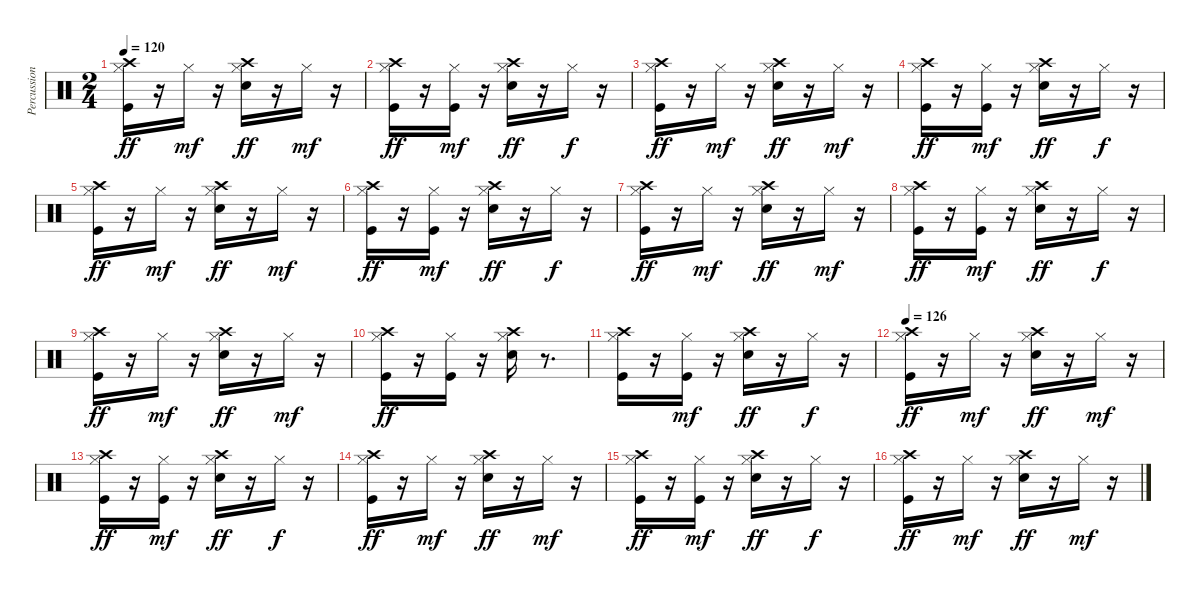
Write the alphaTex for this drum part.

\track ("Percussion" "Percussion") {instrument percussion}
\staff {score}
\articulation defaults
\ts (2 4)
\tempo 120
\clef neutral
\ks c
("Kick (hit)" "Hi-Hat (closed)" "Crash high (hit)").16{dy ff} r.16 "Hi-Hat (closed)".16{dy mf} r.16 ("Snare (hit) 2" "Hi-Hat (closed)" "Crash high (hit)").16{dy ff} r.16 "Hi-Hat (closed)".16{dy mf} r.16 |
("Kick (hit)" "Hi-Hat (closed)" "Crash high (hit)").16{dy ff} r.16 ("Kick (hit)" "Hi-Hat (closed)").16{dy mf} r.16 ("Snare (hit) 2" "Hi-Hat (closed)" "Crash high (hit)").16{dy ff} r.16 "Hi-Hat (closed)".16{dy f} r.16 |
("Kick (hit)" "Hi-Hat (closed)" "Crash high (hit)").16{dy ff} r.16 "Hi-Hat (closed)".16{dy mf} r.16 ("Snare (hit) 2" "Hi-Hat (closed)" "Crash high (hit)").16{dy ff} r.16 "Hi-Hat (closed)".16{dy mf} r.16 |
("Kick (hit)" "Hi-Hat (closed)" "Crash high (hit)").16{dy ff} r.16 ("Kick (hit)" "Hi-Hat (closed)").16{dy mf} r.16 ("Snare (hit) 2" "Hi-Hat (closed)" "Crash high (hit)").16{dy ff} r.16 "Hi-Hat (closed)".16{dy f} r.16 |
("Kick (hit)" "Hi-Hat (closed)" "Crash high (hit)").16{dy ff} r.16 "Hi-Hat (closed)".16{dy mf} r.16 ("Snare (hit) 2" "Hi-Hat (closed)" "Crash high (hit)").16{dy ff} r.16 "Hi-Hat (closed)".16{dy mf} r.16 |
("Kick (hit)" "Hi-Hat (closed)" "Crash high (hit)").16{dy ff} r.16 ("Kick (hit)" "Hi-Hat (closed)").16{dy mf} r.16 ("Snare (hit) 2" "Hi-Hat (closed)" "Crash high (hit)").16{dy ff} r.16 "Hi-Hat (closed)".16{dy f} r.16 |
("Kick (hit)" "Hi-Hat (closed)" "Crash high (hit)").16{dy ff} r.16 "Hi-Hat (closed)".16{dy mf} r.16 ("Snare (hit) 2" "Hi-Hat (closed)" "Crash high (hit)").16{dy ff} r.16 "Hi-Hat (closed)".16{dy mf} r.16 |
("Kick (hit)" "Hi-Hat (closed)" "Crash high (hit)").16{dy ff} r.16 ("Kick (hit)" "Hi-Hat (closed)").16{dy mf} r.16 ("Snare (hit) 2" "Hi-Hat (closed)" "Crash high (hit)").16{dy ff} r.16 "Hi-Hat (closed)".16{dy f} r.16 |
("Kick (hit)" "Hi-Hat (closed)" "Crash high (hit)").16{dy ff} r.16 "Hi-Hat (closed)".16{dy mf} r.16 ("Snare (hit) 2" "Hi-Hat (closed)" "Crash high (hit)").16{dy ff} r.16 "Hi-Hat (closed)".16{dy mf} r.16 |
("Kick (hit)" "Hi-Hat (closed)" "Crash high (hit)").16{dy ff} r.16 ("Kick (hit)" "Hi-Hat (closed)").16 r.16 ("Snare (hit) 2" "Hi-Hat (closed)" "Crash high (hit)").16 r.8{d} |
("Kick (hit)" "Hi-Hat (closed)" "Crash high (hit)").16 r.16 ("Kick (hit)" "Hi-Hat (closed)").16{dy mf} r.16 ("Snare (hit) 2" "Hi-Hat (closed)" "Crash high (hit)").16{dy ff} r.16 "Hi-Hat (closed)".16{dy f} r.16 |
\tempo 126
("Kick (hit)" "Hi-Hat (closed)" "Crash high (hit)").16{dy ff} r.16 "Hi-Hat (closed)".16{dy mf} r.16 ("Snare (hit) 2" "Hi-Hat (closed)" "Crash high (hit)").16{dy ff} r.16 "Hi-Hat (closed)".16{dy mf} r.16 |
("Kick (hit)" "Hi-Hat (closed)" "Crash high (hit)").16{dy ff} r.16 ("Kick (hit)" "Hi-Hat (closed)").16{dy mf} r.16 ("Snare (hit) 2" "Hi-Hat (closed)" "Crash high (hit)").16{dy ff} r.16 "Hi-Hat (closed)".16{dy f} r.16 |
("Kick (hit)" "Hi-Hat (closed)" "Crash high (hit)").16{dy ff} r.16 "Hi-Hat (closed)".16{dy mf} r.16 ("Snare (hit) 2" "Hi-Hat (closed)" "Crash high (hit)").16{dy ff} r.16 "Hi-Hat (closed)".16{dy mf} r.16 |
("Kick (hit)" "Hi-Hat (closed)" "Crash high (hit)").16{dy ff} r.16 ("Kick (hit)" "Hi-Hat (closed)").16{dy mf} r.16 ("Snare (hit) 2" "Hi-Hat (closed)" "Crash high (hit)").16{dy ff} r.16 "Hi-Hat (closed)".16{dy f} r.16 |
("Kick (hit)" "Hi-Hat (closed)" "Crash high (hit)").16{dy ff} r.16 "Hi-Hat (closed)".16{dy mf} r.16 ("Snare (hit) 2" "Hi-Hat (closed)" "Crash high (hit)").16{dy ff} r.16 "Hi-Hat (closed)".16{dy mf} r.16
